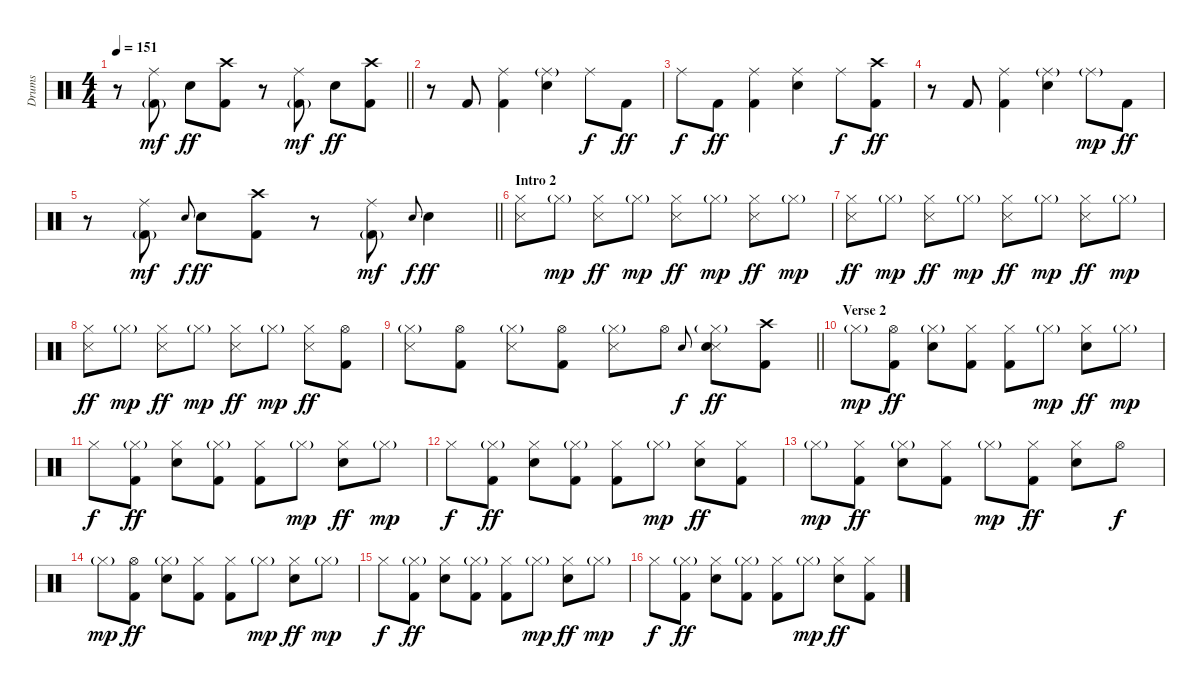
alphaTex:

\track ("Drums" "Drums") {instrument percussion}
\staff {score}
\articulation defaults
\ts (4 4)
\tempo 151
\clef neutral
\barLineRight lightlight
\ks c
r.8{dy ff} ("Ride (middle)" "Kick (hit) 2"{g}).8{dy mf} "Electric Snare (hit)".8{dy ff} ("Crash high (hit)" "Kick (hit) 2").8 r.8 ("Ride (middle)" "Kick (hit) 2"{g}).8{dy mf} "Electric Snare (hit)".8{dy ff} ("Crash high (hit)" "Kick (hit) 2").8 |
r.8 "Kick (hit) 2".8 ("Ride (middle)" "Kick (hit) 2").4 ("Ride (middle)"{g} "Electric Snare (hit)").4 "Ride (middle)".8{dy f} "Kick (hit) 2".8{dy ff} |
"Ride (middle)".8{dy f} "Kick (hit) 2".8{dy ff} ("Ride (middle)" "Kick (hit) 2").4 ("Ride (middle)" "Electric Snare (hit)").4 "Ride (middle)".8{dy f} ("Crash high (hit)" "Kick (hit) 2").8{dy ff} |
r.8 "Kick (hit) 2".8 ("Ride (middle)" "Kick (hit) 2").4 ("Ride (middle)"{g} "Electric Snare (hit)").4 "Ride (middle)"{g}.8{dy mp} "Kick (hit) 2".8{dy ff} |
\barLineRight lightlight
r.8 ("Ride (middle)" "Kick (hit) 2"{g}).8{dy mf} "Electric Snare (hit)".8{gr onbeat dy f} "Electric Snare (hit)".8{dy ff} ("Crash high (hit)" "Kick (hit) 2").8 r.8 ("Ride (middle)" "Kick (hit) 2"{g}).8{dy mf} "Electric Snare (hit)".8{gr onbeat dy f} "Electric Snare (hit)".4{dy ff} |
\section ("" "Intro 2")
("Hi-Hat (closed)" "Snare (side stick) 3").8 "Hi-Hat (closed)"{g}.8{dy mp} ("Hi-Hat (closed)" "Snare (side stick) 3").8{dy ff} "Hi-Hat (closed)"{g}.8{dy mp} ("Hi-Hat (closed)" "Snare (side stick) 3").8{dy ff} "Hi-Hat (closed)"{g}.8{dy mp} ("Hi-Hat (closed)" "Snare (side stick) 3").8{dy ff} "Hi-Hat (closed)"{g}.8{dy mp} |
("Hi-Hat (closed)" "Snare (side stick) 3").8{dy ff} "Hi-Hat (closed)"{g}.8{dy mp} ("Hi-Hat (closed)" "Snare (side stick) 3").8{dy ff} "Hi-Hat (closed)"{g}.8{dy mp} ("Hi-Hat (closed)" "Snare (side stick) 3").8{dy ff} "Hi-Hat (closed)"{g}.8{dy mp} ("Hi-Hat (closed)" "Snare (side stick) 3").8{dy ff} "Hi-Hat (closed)"{g}.8{dy mp} |
("Hi-Hat (closed)" "Snare (side stick) 3").8{dy ff} "Hi-Hat (closed)"{g}.8{dy mp} ("Hi-Hat (closed)" "Snare (side stick) 3").8{dy ff} "Hi-Hat (closed)"{g}.8{dy mp} ("Hi-Hat (closed)" "Snare (side stick) 3").8{dy ff} "Hi-Hat (closed)"{g}.8{dy mp} ("Hi-Hat (closed)" "Snare (side stick) 3").8{dy ff} ("Hi-Hat (open)" "Kick (hit) 2").8 |
\barLineRight lightlight
("Hi-Hat (closed)"{g} "Snare (side stick) 3").8 ("Hi-Hat (open)" "Kick (hit) 2").8 ("Hi-Hat (closed)"{g} "Snare (side stick) 3").8 ("Hi-Hat (open)" "Kick (hit) 2").8 ("Hi-Hat (closed)"{g} "Snare (side stick) 3").8 "Hi-Hat (open)".8 "Electric Snare (hit)".8{gr onbeat dy f} ("Hi-Hat (closed)"{g} "Snare (side stick) 3" "Electric Snare (hit)").8{dy ff} ("Crash high (hit)" "Kick (hit) 2").8 |
\section ("" "Verse 2")
"Hi-Hat (closed)"{g}.8{dy mp} ("Hi-Hat (open)" "Kick (hit) 2").8{dy ff} ("Hi-Hat (closed)"{g} "Electric Snare (hit)").8 ("Hi-Hat (closed)" "Kick (hit) 2").8 ("Hi-Hat (closed)" "Kick (hit) 2").8 "Hi-Hat (closed)"{g}.8{dy mp} ("Hi-Hat (closed)" "Electric Snare (hit)").8{dy ff} "Hi-Hat (closed)"{g}.8{dy mp} |
"Hi-Hat (closed)".8{dy f} ("Hi-Hat (closed)"{g} "Kick (hit) 2").8{dy ff} ("Hi-Hat (closed)" "Electric Snare (hit)").8 ("Hi-Hat (closed)"{g} "Kick (hit) 2").8 ("Hi-Hat (closed)" "Kick (hit) 2").8 "Hi-Hat (closed)"{g}.8{dy mp} ("Hi-Hat (closed)" "Electric Snare (hit)").8{dy ff} "Hi-Hat (closed)"{g}.8{dy mp} |
"Hi-Hat (closed)".8{dy f} ("Hi-Hat (closed)"{g} "Kick (hit) 2").8{dy ff} ("Hi-Hat (closed)" "Electric Snare (hit)").8 ("Hi-Hat (closed)"{g} "Kick (hit) 2").8 ("Hi-Hat (closed)" "Kick (hit) 2").8 "Hi-Hat (closed)"{g}.8{dy mp} ("Hi-Hat (closed)" "Electric Snare (hit)").8{dy ff} ("Hi-Hat (closed)" "Kick (hit) 2").8 |
"Hi-Hat (closed)"{g}.8{dy mp} ("Hi-Hat (closed)" "Kick (hit) 2").8{dy ff} ("Hi-Hat (closed)"{g} "Electric Snare (hit)").8 ("Hi-Hat (closed)" "Kick (hit) 2").8 "Hi-Hat (closed)"{g}.8{dy mp} ("Hi-Hat (closed)" "Kick (hit) 2").8{dy ff} ("Hi-Hat (closed)" "Electric Snare (hit)").8 "Hi-Hat (open)".8{dy f} |
"Hi-Hat (closed)"{g}.8{dy mp} ("Hi-Hat (open)" "Kick (hit) 2").8{dy ff} ("Hi-Hat (closed)"{g} "Electric Snare (hit)").8 ("Hi-Hat (closed)" "Kick (hit) 2").8 ("Hi-Hat (closed)" "Kick (hit) 2").8 "Hi-Hat (closed)"{g}.8{dy mp} ("Hi-Hat (closed)" "Electric Snare (hit)").8{dy ff} "Hi-Hat (closed)"{g}.8{dy mp} |
"Hi-Hat (closed)".8{dy f} ("Hi-Hat (closed)"{g} "Kick (hit) 2").8{dy ff} ("Hi-Hat (closed)" "Electric Snare (hit)").8 ("Hi-Hat (closed)"{g} "Kick (hit) 2").8 ("Hi-Hat (closed)" "Kick (hit) 2").8 "Hi-Hat (closed)"{g}.8{dy mp} ("Hi-Hat (closed)" "Electric Snare (hit)").8{dy ff} "Hi-Hat (closed)"{g}.8{dy mp} |
"Hi-Hat (closed)".8{dy f} ("Hi-Hat (closed)"{g} "Kick (hit) 2").8{dy ff} ("Hi-Hat (closed)" "Electric Snare (hit)").8 ("Hi-Hat (closed)"{g} "Kick (hit) 2").8 ("Hi-Hat (closed)" "Kick (hit) 2").8 "Hi-Hat (closed)"{g}.8{dy mp} ("Hi-Hat (closed)" "Electric Snare (hit)").8{dy ff} ("Hi-Hat (closed)" "Kick (hit) 2").8
